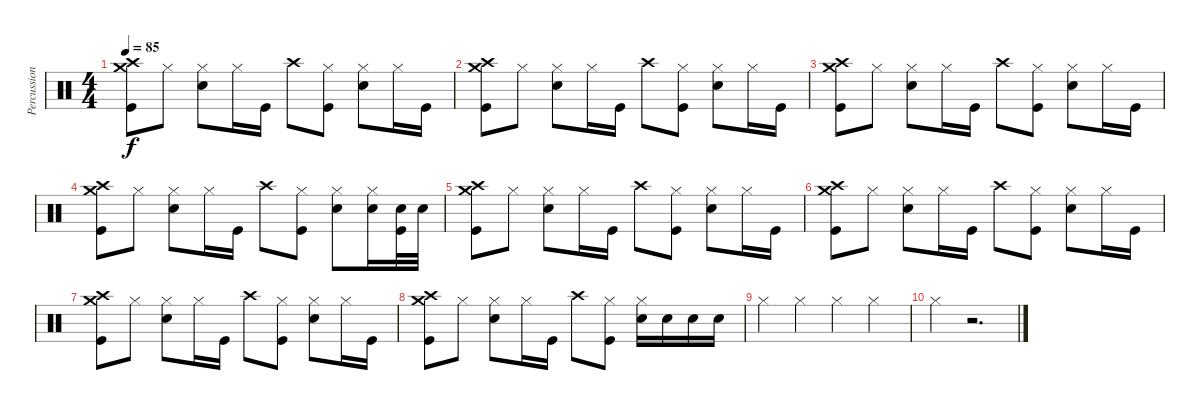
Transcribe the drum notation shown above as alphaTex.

\track ("Percussion" "Percussion") {instrument percussion}
\staff {score}
\articulation defaults
\ts (4 4)
\tempo 85
\clef neutral
\ks c
("Crash high (hit)" "Crash medium (hit)" "Kick (hit)").8{dy f volume 14} "Hi-Hat (closed)".8 ("Hi-Hat (closed)" "Snare (hit) 2").8 "Hi-Hat (closed)".16 "Kick (hit)".16 "Crash high (hit)".8 ("Hi-Hat (closed)" "Kick (hit)").8 ("Hi-Hat (closed)" "Snare (hit) 2").8 "Hi-Hat (closed)".16 "Kick (hit)".16 |
("Crash high (hit)" "Crash medium (hit)" "Kick (hit)").8{volume 14} "Hi-Hat (closed)".8 ("Hi-Hat (closed)" "Snare (hit) 2").8 "Hi-Hat (closed)".16 "Kick (hit)".16 "Crash high (hit)".8 ("Hi-Hat (closed)" "Kick (hit)").8 ("Hi-Hat (closed)" "Snare (hit) 2").8 "Hi-Hat (closed)".16 "Kick (hit)".16 |
("Crash high (hit)" "Crash medium (hit)" "Kick (hit)").8{volume 14} "Hi-Hat (closed)".8 ("Hi-Hat (closed)" "Snare (hit) 2").8 "Hi-Hat (closed)".16 "Kick (hit)".16 "Crash high (hit)".8 ("Hi-Hat (closed)" "Kick (hit)").8 ("Hi-Hat (closed)" "Snare (hit) 2").8 "Hi-Hat (closed)".16 "Kick (hit)".16 |
("Crash high (hit)" "Crash medium (hit)" "Kick (hit)").8{volume 14} "Hi-Hat (closed)".8 ("Hi-Hat (closed)" "Snare (hit) 2").8 "Hi-Hat (closed)".16 "Kick (hit)".16 "Crash high (hit)".8 ("Hi-Hat (closed)" "Kick (hit)").8 ("Hi-Hat (closed)" "Snare (hit) 2").8 ("Hi-Hat (closed)" "Snare (hit) 2").16 ("Kick (hit)" "Snare (hit) 2").32 "Snare (hit) 2".32 |
("Crash high (hit)" "Crash medium (hit)" "Kick (hit)").8{volume 14} "Hi-Hat (closed)".8 ("Hi-Hat (closed)" "Snare (hit) 2").8 "Hi-Hat (closed)".16 "Kick (hit)".16 "Crash high (hit)".8 ("Hi-Hat (closed)" "Kick (hit)").8 ("Hi-Hat (closed)" "Snare (hit) 2").8 "Hi-Hat (closed)".16 "Kick (hit)".16 |
("Crash high (hit)" "Crash medium (hit)" "Kick (hit)").8{volume 14} "Hi-Hat (closed)".8 ("Hi-Hat (closed)" "Snare (hit) 2").8 "Hi-Hat (closed)".16 "Kick (hit)".16 "Crash high (hit)".8 ("Hi-Hat (closed)" "Kick (hit)").8 ("Hi-Hat (closed)" "Snare (hit) 2").8 "Hi-Hat (closed)".16 "Kick (hit)".16 |
("Crash high (hit)" "Crash medium (hit)" "Kick (hit)").8{volume 14} "Hi-Hat (closed)".8 ("Hi-Hat (closed)" "Snare (hit) 2").8 "Hi-Hat (closed)".16 "Kick (hit)".16 "Crash high (hit)".8 ("Hi-Hat (closed)" "Kick (hit)").8 ("Hi-Hat (closed)" "Snare (hit) 2").8 "Hi-Hat (closed)".16 "Kick (hit)".16 |
("Crash high (hit)" "Crash medium (hit)" "Kick (hit)").8{volume 14} "Hi-Hat (closed)".8 ("Hi-Hat (closed)" "Snare (hit) 2").8 "Hi-Hat (closed)".16 "Kick (hit)".16 "Crash high (hit)".8 ("Hi-Hat (closed)" "Kick (hit)").8 ("Hi-Hat (closed)" "Snare (hit) 2").16 "Snare (hit) 2".16 "Snare (hit) 2".16 "Snare (hit) 2".16 |
"Hi-Hat (closed)".4 "Hi-Hat (closed)".4 "Hi-Hat (closed)".4 "Hi-Hat (closed)".4 |
"Hi-Hat (closed)".4 r.2{d}
